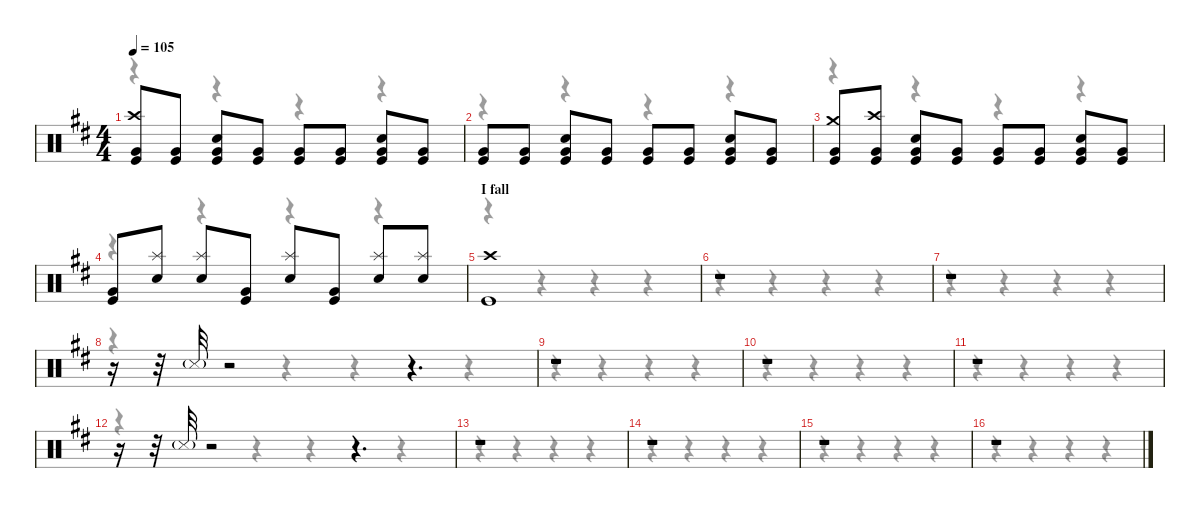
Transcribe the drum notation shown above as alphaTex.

\defaultSystemsLayout 4
\hideDynamics
\bracketExtendMode nobrackets
\singleTrackTrackNamePolicy hidden
\multiTrackTrackNamePolicy hidden
\firstSystemTrackNameMode fullname
\firstSystemTrackNameOrientation horizontal
\otherSystemsTrackNameOrientation horizontal
\track ("Drums" "drm.") {instrument percussion}
\staff {score}
\articulation defaults
\voice
\ts (4 4)
\tempo 105
\clef neutral
\ks bminor
("Crash high (hit)"{acc forcenatural} "Very Low Tom (hit)"{acc forcenatural} "Kick (hit)"{acc forcenatural}).8{dy mf beam Up} ("Very Low Tom (hit)"{acc forcenatural} "Kick (hit)"{acc forcenatural}).8{dy p beam Up} ("Snare (hit) 2"{acc forcenatural} "Very Low Tom (hit)"{acc forcenatural} "Kick (hit)"{acc forcenatural}).8{dy f beam Up} ("Very Low Tom (hit)"{acc forcenatural} "Kick (hit)"{acc forcenatural}).8{dy p beam Up} ("Very Low Tom (hit)"{acc forcenatural} "Kick (hit)"{acc forcenatural}).8{dy f beam Up} ("Very Low Tom (hit)"{acc forcenatural} "Kick (hit)"{acc forcenatural}).8{dy p beam Up} ("Snare (hit) 2"{acc forcenatural} "Very Low Tom (hit)"{acc forcenatural} "Kick (hit)"{acc forcenatural}).8{dy f beam Up} ("Very Low Tom (hit)"{acc forcenatural} "Kick (hit)"{acc forcenatural}).8{dy p beam Up} |
("Very Low Tom (hit)"{acc forcenatural} "Kick (hit)"{acc forcenatural}).8{dy f beam Up} ("Very Low Tom (hit)"{acc forcenatural} "Kick (hit)"{acc forcenatural}).8{dy p beam Up} ("Snare (hit) 2"{acc forcenatural} "Very Low Tom (hit)"{acc forcenatural} "Kick (hit)"{acc forcenatural}).8{dy f beam Up} ("Very Low Tom (hit)"{acc forcenatural} "Kick (hit)"{acc forcenatural}).8{dy p beam Up} ("Very Low Tom (hit)"{acc forcenatural} "Kick (hit)"{acc forcenatural}).8{dy f beam Up} ("Very Low Tom (hit)"{acc forcenatural} "Kick (hit)"{acc forcenatural}).8{dy p beam Up} ("Snare (hit) 2"{acc forcenatural} "Very Low Tom (hit)"{acc forcenatural} "Kick (hit)"{acc forcenatural}).8{dy f beam Up} ("Very Low Tom (hit)"{acc forcenatural} "Kick (hit)"{acc forcenatural}).8{dy p beam Up} |
("Crash medium (hit)"{acc forcenatural} "Very Low Tom (hit)"{acc forcenatural} "Kick (hit)"{acc forcenatural}).8{dy mf beam Up} ("Crash high (hit)"{acc forcenatural} "Very Low Tom (hit)"{acc forcenatural} "Kick (hit)"{acc forcenatural}).8{beam Up} ("Snare (hit) 2"{acc forcenatural} "Very Low Tom (hit)"{acc forcenatural} "Kick (hit)"{acc forcenatural}).8{dy f beam Up} ("Very Low Tom (hit)"{acc forcenatural} "Kick (hit)"{acc forcenatural}).8{dy p beam Up} ("Very Low Tom (hit)"{acc forcenatural} "Kick (hit)"{acc forcenatural}).8{dy f beam Up} ("Very Low Tom (hit)"{acc forcenatural} "Kick (hit)"{acc forcenatural}).8{dy p beam Up} ("Snare (hit) 2"{acc forcenatural} "Very Low Tom (hit)"{acc forcenatural} "Kick (hit)"{acc forcenatural}).8{dy f beam Up} ("Very Low Tom (hit)"{acc forcenatural} "Kick (hit)"{acc forcenatural}).8{dy p beam Up} |
("Very Low Tom (hit)"{acc forcenatural} "Kick (hit)"{acc forcenatural}).8{dy f beam Up} ("Splash (hit)"{acc forcenatural} "Snare (hit) 2"{acc forcenatural}).8{dy mf beam Up} ("Splash (hit)"{acc forcenatural} "Snare (hit) 2"{acc forcenatural}).8{beam Up} ("Very Low Tom (hit)"{acc forcenatural} "Kick (hit)"{acc forcenatural}).8{dy p beam Up} ("Splash (hit)"{acc forcenatural} "Snare (hit) 2"{acc forcenatural}).8{dy mf beam Up} ("Very Low Tom (hit)"{acc forcenatural} "Kick (hit)"{acc forcenatural}).8{dy p beam Up} ("Splash (hit)"{acc forcenatural} "Snare (hit) 2"{acc forcenatural}).8{dy mf beam Up} ("Splash (hit)"{acc forcenatural} "Snare (hit) 2"{acc forcenatural}).8{beam Up} |
\section ("" "I fall")
("Crash high (hit)"{acc forcenatural} "Kick (hit)"{acc forcenatural}).1{dy f beam Up} |
r.1{beam Up} |
r.1{beam Up} |
r.16{beam Up} r.32{beam Up} "Snare (side stick) 3"{g acc forcenatural}.32{dy mf beam Up} r.2{beam Up} r.4{d beam Up} |
r.1{beam Up} |
r.1{beam Up} |
r.1{beam Up} |
r.16{beam Up} r.32{beam Up} "Snare (side stick) 3"{g acc forcenatural}.32{beam Up} r.2{beam Up} r.4{d beam Up} |
r.1{beam Up} |
r.1{beam Up} |
r.1{beam Up} |
r.1{beam Up}
\voice
\clef neutral
\ottava regular
\simile none
\ks bminor
r.4{dy mf beam Down} r.4{beam Down} r.4{beam Down} r.4{beam Down} |
r.4{beam Down} r.4{beam Down} r.4{beam Down} r.4{beam Down} |
r.4{beam Down} r.4{beam Down} r.4{beam Down} r.4{beam Down} |
r.4{beam Down} r.4{beam Down} r.4{beam Down} r.4{beam Down} |
r.4{beam Down} r.4{beam Down} r.4{beam Down} r.4{beam Down} |
r.4{beam Down} r.4{beam Down} r.4{beam Down} r.4{beam Down} |
r.4{beam Down} r.4{beam Down} r.4{beam Down} r.4{beam Down} |
r.4{beam Down} r.4{beam Down} r.4{beam Down} r.4{beam Down} |
r.4{beam Down} r.4{beam Down} r.4{beam Down} r.4{beam Down} |
r.4{beam Down} r.4{beam Down} r.4{beam Down} r.4{beam Down} |
r.4{beam Down} r.4{beam Down} r.4{beam Down} r.4{beam Down} |
r.4{beam Down} r.4{beam Down} r.4{beam Down} r.4{beam Down} |
r.4{beam Down} r.4{beam Down} r.4{beam Down} r.4{beam Down} |
r.4{beam Down} r.4{beam Down} r.4{beam Down} r.4{beam Down} |
r.4{beam Down} r.4{beam Down} r.4{beam Down} r.4{beam Down} |
r.4{beam Down} r.4{beam Down} r.4{beam Down} r.4{beam Down}
